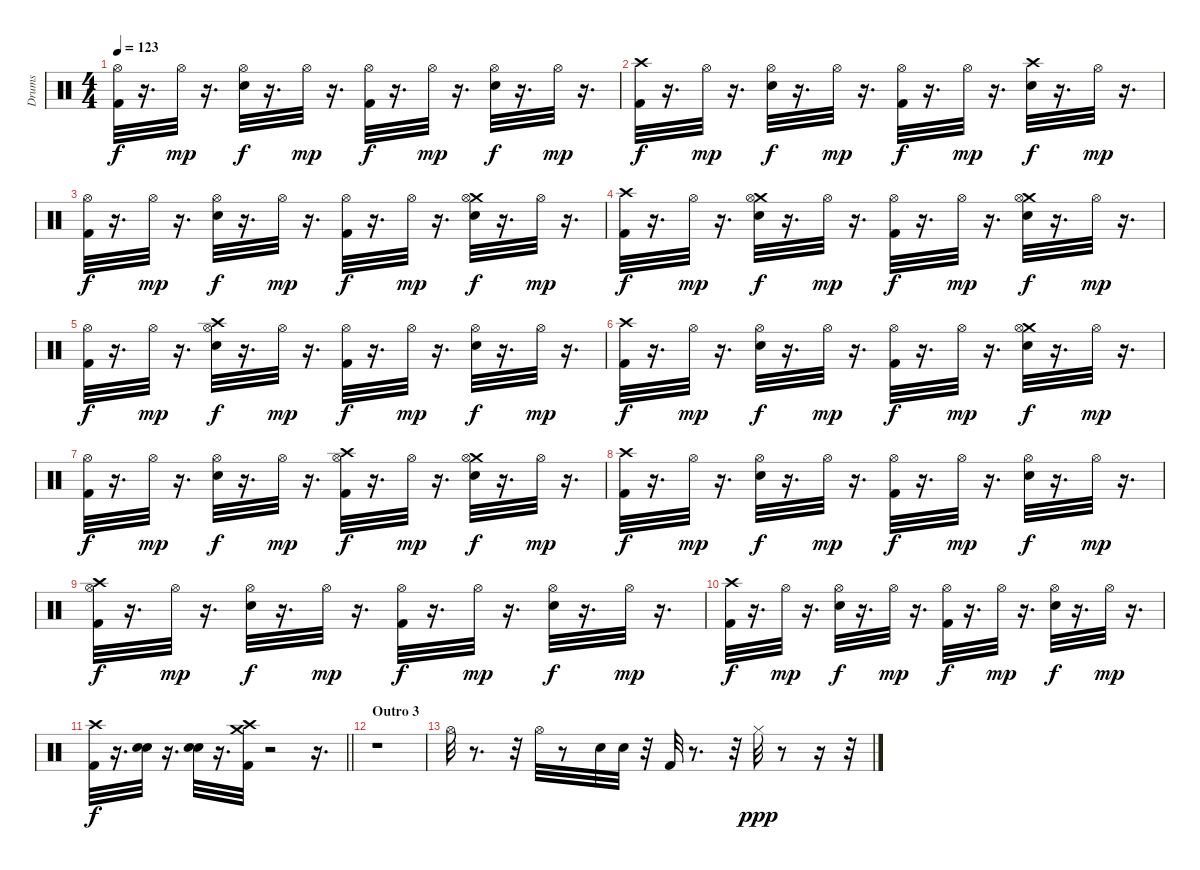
\track ("Drums" "Drums") {instrument percussion}
\staff {score}
\articulation defaults
\ts (4 4)
\tempo 123
\clef neutral
\ks c
("Hi-Hat (open)" "Kick (hit) 2").32{dy f} r.16{d} "Hi-Hat (open)".32{dy mp} r.16{d} ("Hi-Hat (open)" "Electric Snare (hit)").32{dy f} r.16{d} "Hi-Hat (open)".32{dy mp} r.16{d} ("Hi-Hat (open)" "Kick (hit) 2").32{dy f} r.16{d} "Hi-Hat (open)".32{dy mp} r.16{d} ("Hi-Hat (open)" "Electric Snare (hit)").32{dy f} r.16{d} "Hi-Hat (open)".32{dy mp} r.16{d} |
("Crash high (hit)" "Kick (hit) 2").32{dy f} r.16{d} "Hi-Hat (open)".32{dy mp} r.16{d} ("Hi-Hat (open)" "Electric Snare (hit)").32{dy f} r.16{d} "Hi-Hat (open)".32{dy mp} r.16{d} ("Kick (hit) 2" "Hi-Hat (open)").32{dy f} r.16{d} "Hi-Hat (open)".32{dy mp} r.16{d} ("Crash high (hit)" "Electric Snare (hit)").32{dy f} r.16{d} "Hi-Hat (open)".32{dy mp} r.16{d} |
("Hi-Hat (open)" "Kick (hit) 2").32{dy f} r.16{d} "Hi-Hat (open)".32{dy mp} r.16{d} ("Hi-Hat (open)" "Electric Snare (hit)").32{dy f} r.16{d} "Hi-Hat (open)".32{dy mp} r.16{d} ("Hi-Hat (open)" "Kick (hit) 2").32{dy f} r.16{d} "Hi-Hat (open)".32{dy mp} r.16{d} ("Crash medium (hit)" "Hi-Hat (open)" "Electric Snare (hit)").32{dy f} r.16{d} "Hi-Hat (open)".32{dy mp} r.16{d} |
("Crash high (hit)" "Kick (hit) 2").32{dy f} r.16{d} "Hi-Hat (open)".32{dy mp} r.16{d} ("Crash medium (hit)" "Hi-Hat (open)" "Electric Snare (hit)").32{dy f} r.16{d} "Hi-Hat (open)".32{dy mp} r.16{d} ("Kick (hit) 2" "Hi-Hat (open)").32{dy f} r.16{d} "Hi-Hat (open)".32{dy mp} r.16{d} ("Crash medium (hit)" "Hi-Hat (open)" "Electric Snare (hit)").32{dy f} r.16{d} "Hi-Hat (open)".32{dy mp} r.16{d} |
("Hi-Hat (open)" "Kick (hit) 2").32{dy f} r.16{d} "Hi-Hat (open)".32{dy mp} r.16{d} ("Crash high (hit)" "Hi-Hat (open)" "Electric Snare (hit)").32{dy f} r.16{d} "Hi-Hat (open)".32{dy mp} r.16{d} ("Hi-Hat (open)" "Kick (hit) 2").32{dy f} r.16{d} "Hi-Hat (open)".32{dy mp} r.16{d} ("Hi-Hat (open)" "Electric Snare (hit)").32{dy f} r.16{d} "Hi-Hat (open)".32{dy mp} r.16{d} |
("Crash high (hit)" "Kick (hit) 2").32{dy f} r.16{d} "Hi-Hat (open)".32{dy mp} r.16{d} ("Hi-Hat (open)" "Electric Snare (hit)").32{dy f} r.16{d} "Hi-Hat (open)".32{dy mp} r.16{d} ("Kick (hit) 2" "Hi-Hat (open)").32{dy f} r.16{d} "Hi-Hat (open)".32{dy mp} r.16{d} ("Crash medium (hit)" "Hi-Hat (open)" "Electric Snare (hit)").32{dy f} r.16{d} "Hi-Hat (open)".32{dy mp} r.16{d} |
("Hi-Hat (open)" "Kick (hit) 2").32{dy f} r.16{d} "Hi-Hat (open)".32{dy mp} r.16{d} ("Hi-Hat (open)" "Electric Snare (hit)").32{dy f} r.16{d} "Hi-Hat (open)".32{dy mp} r.16{d} ("Crash high (hit)" "Hi-Hat (open)" "Kick (hit) 2").32{dy f} r.16{d} "Hi-Hat (open)".32{dy mp} r.16{d} ("Crash medium (hit)" "Hi-Hat (open)" "Electric Snare (hit)").32{dy f} r.16{d} "Hi-Hat (open)".32{dy mp} r.16{d} |
("Crash high (hit)" "Kick (hit) 2").32{dy f} r.16{d} "Hi-Hat (open)".32{dy mp} r.16{d} ("Hi-Hat (open)" "Electric Snare (hit)").32{dy f} r.16{d} "Hi-Hat (open)".32{dy mp} r.16{d} ("Kick (hit) 2" "Hi-Hat (open)").32{dy f} r.16{d} "Hi-Hat (open)".32{dy mp} r.16{d} ("Hi-Hat (open)" "Electric Snare (hit)").32{dy f} r.16{d} "Hi-Hat (open)".32{dy mp} r.16{d} |
("Crash high (hit)" "Hi-Hat (open)" "Kick (hit) 2").32{dy f} r.16{d} "Hi-Hat (open)".32{dy mp} r.16{d} ("Hi-Hat (open)" "Electric Snare (hit)").32{dy f} r.16{d} "Hi-Hat (open)".32{dy mp} r.16{d} ("Hi-Hat (open)" "Kick (hit) 2").32{dy f} r.16{d} "Hi-Hat (open)".32{dy mp} r.16{d} ("Hi-Hat (open)" "Electric Snare (hit)").32{dy f} r.16{d} "Hi-Hat (open)".32{dy mp} r.16{d} |
("Crash high (hit)" "Kick (hit) 2").32{dy f} r.16{d} "Hi-Hat (open)".32{dy mp} r.16{d} ("Hi-Hat (open)" "Electric Snare (hit)").32{dy f} r.16{d} "Hi-Hat (open)".32{dy mp} r.16{d} ("Kick (hit) 2" "Hi-Hat (open)").32{dy f} r.16{d} "Hi-Hat (open)".32{dy mp} r.16{d} ("Hi-Hat (open)" "Electric Snare (hit)").32{dy f} r.16{d} "Hi-Hat (open)".32{dy mp} r.16{d} |
\barLineRight lightlight
("Crash high (hit)" "Kick (hit) 2").32{dy f} r.16{d} ("Electric Snare (hit)" "Snare (hit) 2").32 r.16{d} ("Electric Snare (hit)" "Snare (hit) 2").32 r.16{d} ("Crash medium (hit)" "Crash high (hit)" "Kick (hit) 2").32 r.2 r.16{d} |
\section ("" "Outro 3")
r.1 |
"Hi-Hat (open)".32 r.8{d} r.32 "Hi-Hat (open)".32 r.8 "Electric Snare (hit)".32 "Electric Snare (hit)".32 r.32 "Kick (hit) 2".32 r.8{d} r.32 "Hi-Hat (closed)".32{dy ppp} r.8 r.16 r.32
